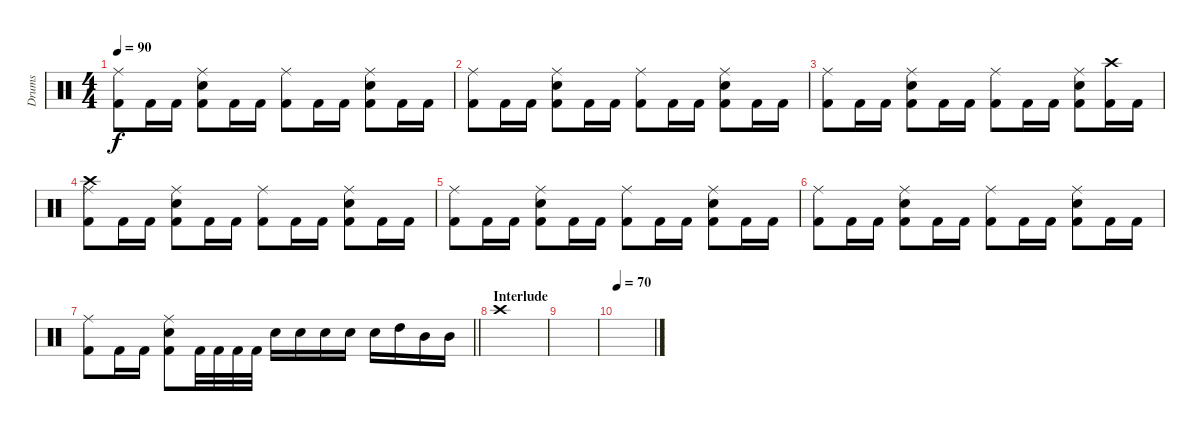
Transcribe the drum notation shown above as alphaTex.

\track ("Drums" "Drums") {instrument percussion}
\staff {score}
\articulation defaults
\ts (4 4)
\tempo 90
\clef neutral
\ks c
("Ride (middle)" "Kick (hit) 2").8{dy f} "Kick (hit) 2".16 "Kick (hit) 2".16 ("Ride (middle)" "Snare (hit) 2" "Kick (hit) 2").8 "Kick (hit) 2".16 "Kick (hit) 2".16 ("Ride (middle)" "Kick (hit) 2").8 "Kick (hit) 2".16 "Kick (hit) 2".16 ("Ride (middle)" "Snare (hit) 2" "Kick (hit) 2").8 "Kick (hit) 2".16 "Kick (hit) 2".16 |
("Ride (middle)" "Kick (hit) 2").8 "Kick (hit) 2".16 "Kick (hit) 2".16 ("Ride (middle)" "Snare (hit) 2" "Kick (hit) 2").8 "Kick (hit) 2".16 "Kick (hit) 2".16 ("Ride (middle)" "Kick (hit) 2").8 "Kick (hit) 2".16 "Kick (hit) 2".16 ("Ride (middle)" "Snare (hit) 2" "Kick (hit) 2").8 "Kick (hit) 2".16 "Kick (hit) 2".16 |
("Ride (middle)" "Kick (hit) 2").8 "Kick (hit) 2".16 "Kick (hit) 2".16 ("Ride (middle)" "Snare (hit) 2" "Kick (hit) 2").8 "Kick (hit) 2".16 "Kick (hit) 2".16 ("Ride (middle)" "Kick (hit) 2").8 "Kick (hit) 2".16 "Kick (hit) 2".16 ("Ride (middle)" "Snare (hit) 2" "Kick (hit) 2").8 ("Crash high (hit)" "Kick (hit) 2").16 "Kick (hit) 2".16 |
("Crash high (hit)" "Ride (middle)" "Kick (hit) 2").8 "Kick (hit) 2".16 "Kick (hit) 2".16 ("Ride (middle)" "Snare (hit) 2" "Kick (hit) 2").8 "Kick (hit) 2".16 "Kick (hit) 2".16 ("Ride (middle)" "Kick (hit) 2").8 "Kick (hit) 2".16 "Kick (hit) 2".16 ("Ride (middle)" "Snare (hit) 2" "Kick (hit) 2").8 "Kick (hit) 2".16 "Kick (hit) 2".16 |
("Ride (middle)" "Kick (hit) 2").8 "Kick (hit) 2".16 "Kick (hit) 2".16 ("Ride (middle)" "Snare (hit) 2" "Kick (hit) 2").8 "Kick (hit) 2".16 "Kick (hit) 2".16 ("Ride (middle)" "Kick (hit) 2").8 "Kick (hit) 2".16 "Kick (hit) 2".16 ("Ride (middle)" "Snare (hit) 2" "Kick (hit) 2").8 "Kick (hit) 2".16 "Kick (hit) 2".16 |
("Ride (middle)" "Kick (hit) 2").8 "Kick (hit) 2".16 "Kick (hit) 2".16 ("Ride (middle)" "Snare (hit) 2" "Kick (hit) 2").8 "Kick (hit) 2".16 "Kick (hit) 2".16 ("Ride (middle)" "Kick (hit) 2").8 "Kick (hit) 2".16 "Kick (hit) 2".16 ("Ride (middle)" "Snare (hit) 2" "Kick (hit) 2").8 "Kick (hit) 2".16 "Kick (hit) 2".16 |
\barLineRight lightlight
("Ride (middle)" "Kick (hit) 2").8 "Kick (hit) 2".16 "Kick (hit) 2".16 ("Ride (middle)" "Snare (hit) 2" "Kick (hit) 2").8 "Kick (hit) 2".32 "Kick (hit) 2".32 "Kick (hit) 2".32 "Kick (hit) 2".32 "Snare (hit) 2".16 "Snare (hit) 2".16 "Snare (hit) 2".16 "Snare (hit) 2".16 "Snare (hit) 2".16 "High Tom (hit)".16 "Mid Tom (hit)".16 "Mid Tom (hit)".16 |
\section ("" "Interlude")
"Crash high (hit)".1 |
|
\tempo 70
